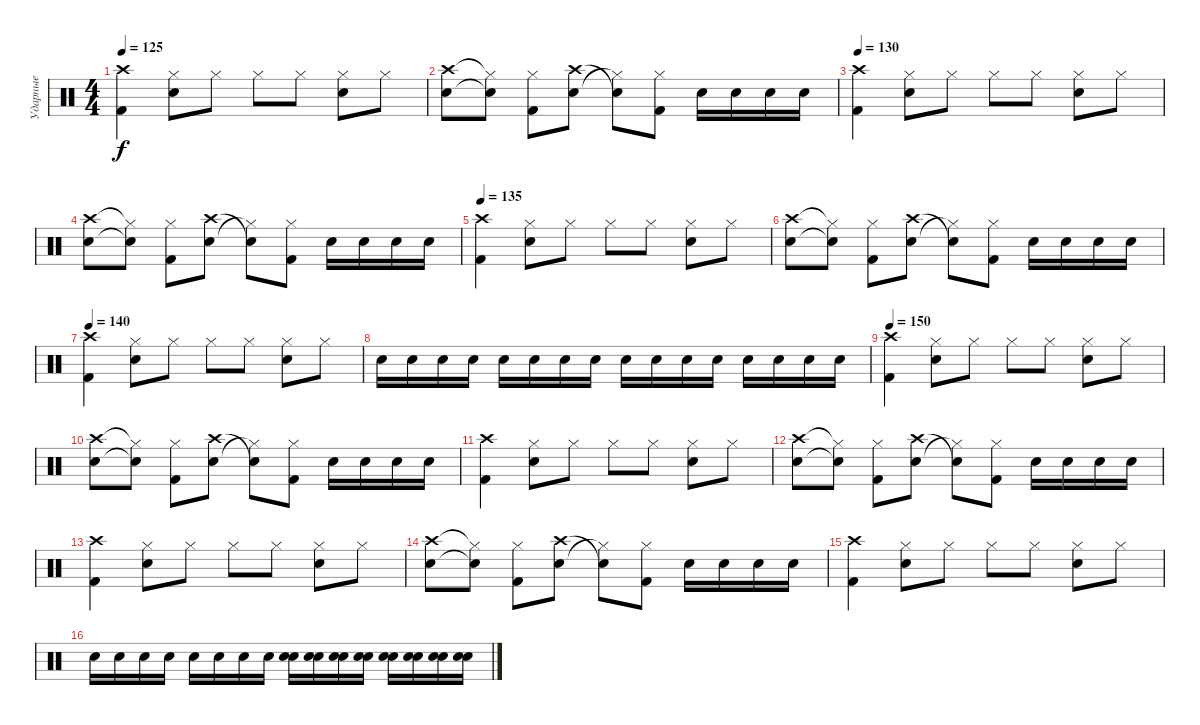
\track ("Ударные" "Ударные") {instrument percussion}
\staff {score}
\articulation defaults
\ts (4 4)
\tempo 125
\clef neutral
\ks c
("Crash high (hit)" "Kick (hit) 2").4{dy f} ("Hi-Hat (closed)" "Snare (hit) 2").8 "Hi-Hat (closed)".8 "Hi-Hat (closed)".8 "Hi-Hat (closed)".8 ("Hi-Hat (closed)" "Snare (hit) 2").8 "Hi-Hat (closed)".8 |
("Snare (hit) 2" "Crash high (hit)").8 ("Snare (hit)"{t} "Hi-Hat (closed)"{t}).8 ("Hi-Hat (closed)" "Kick (hit) 2").8 ("Crash high (hit)" "Snare (hit) 2").8 ("Snare (hit)"{t} "Hi-Hat (closed)"{t}).8 ("Hi-Hat (closed)" "Kick (hit) 2").8 "Snare (hit) 2".16 "Snare (hit) 2".16 "Snare (hit) 2".16 "Snare (hit) 2".16 |
\tempo 130
("Crash high (hit)" "Kick (hit) 2").4 ("Hi-Hat (closed)" "Snare (hit) 2").8 "Hi-Hat (closed)".8 "Hi-Hat (closed)".8 "Hi-Hat (closed)".8 ("Hi-Hat (closed)" "Snare (hit) 2").8 "Hi-Hat (closed)".8 |
("Snare (hit) 2" "Crash high (hit)").8 ("Snare (hit)"{t} "Hi-Hat (closed)"{t}).8 ("Hi-Hat (closed)" "Kick (hit) 2").8 ("Crash high (hit)" "Snare (hit) 2").8 ("Snare (hit)"{t} "Hi-Hat (closed)"{t}).8 ("Hi-Hat (closed)" "Kick (hit) 2").8 "Snare (hit) 2".16 "Snare (hit) 2".16 "Snare (hit) 2".16 "Snare (hit) 2".16 |
\tempo 135
("Crash high (hit)" "Kick (hit) 2").4 ("Hi-Hat (closed)" "Snare (hit) 2").8 "Hi-Hat (closed)".8 "Hi-Hat (closed)".8 "Hi-Hat (closed)".8 ("Hi-Hat (closed)" "Snare (hit) 2").8 "Hi-Hat (closed)".8 |
("Snare (hit) 2" "Crash high (hit)").8 ("Snare (hit)"{t} "Hi-Hat (closed)"{t}).8 ("Hi-Hat (closed)" "Kick (hit) 2").8 ("Crash high (hit)" "Snare (hit) 2").8 ("Snare (hit)"{t} "Hi-Hat (closed)"{t}).8 ("Hi-Hat (closed)" "Kick (hit) 2").8 "Snare (hit) 2".16 "Snare (hit) 2".16 "Snare (hit) 2".16 "Snare (hit) 2".16 |
\tempo 140
("Crash high (hit)" "Kick (hit) 2").4 ("Hi-Hat (closed)" "Snare (hit) 2").8 "Hi-Hat (closed)".8 "Hi-Hat (closed)".8 "Hi-Hat (closed)".8 ("Hi-Hat (closed)" "Snare (hit) 2").8 "Hi-Hat (closed)".8 |
"Snare (hit) 2".16 "Snare (hit) 2".16 "Snare (hit) 2".16 "Snare (hit) 2".16 "Snare (hit) 2".16 "Snare (hit) 2".16 "Snare (hit) 2".16 "Snare (hit) 2".16 "Snare (hit) 2".16 "Snare (hit) 2".16 "Snare (hit) 2".16 "Snare (hit) 2".16 "Snare (hit) 2".16 "Snare (hit) 2".16 "Snare (hit) 2".16 "Snare (hit) 2".16 |
\tempo 150
("Crash high (hit)" "Kick (hit) 2").4 ("Hi-Hat (closed)" "Snare (hit) 2").8 "Hi-Hat (closed)".8 "Hi-Hat (closed)".8 "Hi-Hat (closed)".8 ("Hi-Hat (closed)" "Snare (hit) 2").8 "Hi-Hat (closed)".8 |
("Snare (hit) 2" "Crash high (hit)").8 ("Snare (hit)"{t} "Hi-Hat (closed)"{t}).8 ("Hi-Hat (closed)" "Kick (hit) 2").8 ("Crash high (hit)" "Snare (hit) 2").8 ("Snare (hit)"{t} "Hi-Hat (closed)"{t}).8 ("Hi-Hat (closed)" "Kick (hit) 2").8 "Snare (hit) 2".16 "Snare (hit) 2".16 "Snare (hit) 2".16 "Snare (hit) 2".16 |
("Crash high (hit)" "Kick (hit) 2").4 ("Hi-Hat (closed)" "Snare (hit) 2").8 "Hi-Hat (closed)".8 "Hi-Hat (closed)".8 "Hi-Hat (closed)".8 ("Hi-Hat (closed)" "Snare (hit) 2").8 "Hi-Hat (closed)".8 |
("Snare (hit) 2" "Crash high (hit)").8 ("Snare (hit)"{t} "Hi-Hat (closed)"{t}).8 ("Hi-Hat (closed)" "Kick (hit) 2").8 ("Crash high (hit)" "Snare (hit) 2").8 ("Snare (hit)"{t} "Hi-Hat (closed)"{t}).8 ("Hi-Hat (closed)" "Kick (hit) 2").8 "Snare (hit) 2".16 "Snare (hit) 2".16 "Snare (hit) 2".16 "Snare (hit) 2".16 |
("Crash high (hit)" "Kick (hit) 2").4 ("Hi-Hat (closed)" "Snare (hit) 2").8 "Hi-Hat (closed)".8 "Hi-Hat (closed)".8 "Hi-Hat (closed)".8 ("Hi-Hat (closed)" "Snare (hit) 2").8 "Hi-Hat (closed)".8 |
("Snare (hit) 2" "Crash high (hit)").8 ("Snare (hit)"{t} "Hi-Hat (closed)"{t}).8 ("Hi-Hat (closed)" "Kick (hit) 2").8 ("Crash high (hit)" "Snare (hit) 2").8 ("Snare (hit)"{t} "Hi-Hat (closed)"{t}).8 ("Hi-Hat (closed)" "Kick (hit) 2").8 "Snare (hit) 2".16 "Snare (hit) 2".16 "Snare (hit) 2".16 "Snare (hit) 2".16 |
("Crash high (hit)" "Kick (hit) 2").4 ("Hi-Hat (closed)" "Snare (hit) 2").8 "Hi-Hat (closed)".8 "Hi-Hat (closed)".8 "Hi-Hat (closed)".8 ("Hi-Hat (closed)" "Snare (hit) 2").8 "Hi-Hat (closed)".8 |
"Snare (hit) 2".16 "Snare (hit) 2".16 "Snare (hit) 2".16 "Snare (hit) 2".16 "Snare (hit) 2".16 "Snare (hit) 2".16 "Snare (hit) 2".16 "Snare (hit) 2".16 ("Electric Snare (hit)" "Snare (hit) 2").16 ("Electric Snare (hit)" "Snare (hit) 2").16 ("Electric Snare (hit)" "Snare (hit) 2").16 ("Electric Snare (hit)" "Snare (hit) 2").16 ("Electric Snare (hit)" "Snare (hit) 2").16 ("Electric Snare (hit)" "Snare (hit) 2").16 ("Electric Snare (hit)" "Snare (hit) 2").16 ("Electric Snare (hit)" "Snare (hit) 2").16
